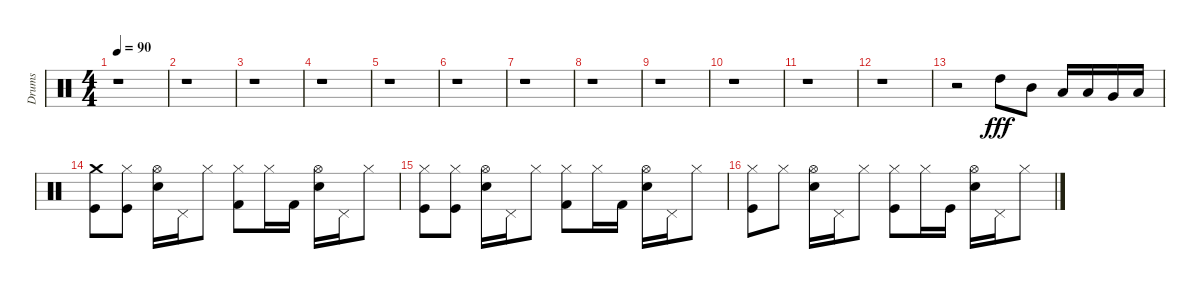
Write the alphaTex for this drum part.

\track ("Drums" "Drums") {instrument percussion}
\staff {score}
\articulation defaults
\ts (4 4)
\tempo 90
\clef neutral
\ks c
r.1{dy fff} |
r.1 |
r.1 |
r.1 |
r.1 |
r.1 |
r.1 |
r.1 |
r.1 |
r.1 |
r.1 |
r.1 |
r.2 "High Tom (hit)".8 "Mid Tom (hit)".8 "Low Tom (hit)".16 "Low Tom (hit)".16 "Very Low Tom (hit)".16 "Low Floor Tom (hit)".16 |
("Crash medium (hit)" "Kick (hit)").8 ("Hi-Hat (closed)" "Kick (hit)").8 ("Hi-Hat (open)" "Snare (hit) 2").16 "Pedal Hi-Hat (hit)".16 "Hi-Hat (closed)".8 ("Hi-Hat (closed)" "Kick (hit) 2").8 "Hi-Hat (closed)".16 "Kick (hit) 2".16 ("Hi-Hat (open)" "Snare (hit) 2").16 "Pedal Hi-Hat (hit)".16 "Hi-Hat (closed)".8 |
("Hi-Hat (closed)" "Kick (hit)").8 ("Hi-Hat (closed)" "Kick (hit)").8 ("Hi-Hat (open)" "Snare (hit) 2").16 "Pedal Hi-Hat (hit)".16 "Hi-Hat (closed)".8 ("Hi-Hat (closed)" "Kick (hit) 2").8 "Hi-Hat (closed)".16 "Kick (hit) 2".16 ("Hi-Hat (open)" "Snare (hit) 2").16 "Pedal Hi-Hat (hit)".16 "Hi-Hat (closed)".8 |
("Hi-Hat (closed)" "Kick (hit)").8 "Hi-Hat (closed)".8 ("Hi-Hat (open)" "Snare (hit) 2").16 "Pedal Hi-Hat (hit)".16 "Hi-Hat (closed)".8 ("Hi-Hat (closed)" "Kick (hit)").8 "Hi-Hat (closed)".16 "Kick (hit)".16 ("Hi-Hat (open)" "Snare (hit) 2").16 "Pedal Hi-Hat (hit)".16 "Hi-Hat (closed)".8
